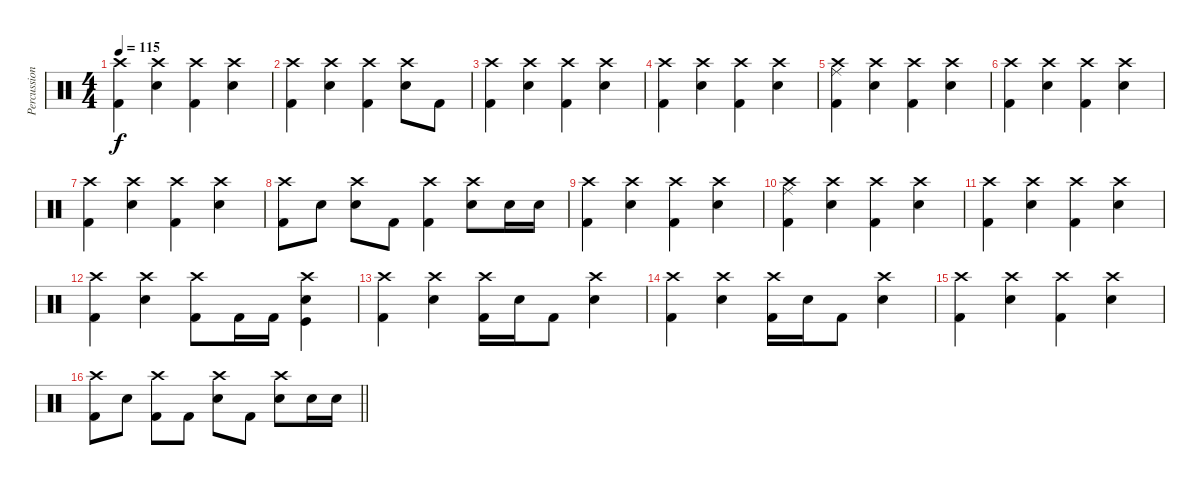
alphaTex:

\track ("Percussion" "Percussion") {instrument percussion}
\staff {score}
\articulation defaults
\ts (4 4)
\tempo 115
\clef neutral
\ks c
("Crash high (hit)" "Kick (hit) 2").4{dy f} ("Crash high (hit)" "Snare (hit) 2").4 ("Crash high (hit)" "Kick (hit) 2").4 ("Crash high (hit)" "Snare (hit) 2").4 |
("Crash high (hit)" "Kick (hit) 2").4 ("Crash high (hit)" "Snare (hit) 2").4 ("Crash high (hit)" "Kick (hit) 2").4 ("Crash high (hit)" "Snare (hit) 2").8 "Kick (hit) 2".8 |
("Crash high (hit)" "Kick (hit) 2").4 ("Crash high (hit)" "Snare (hit) 2").4 ("Crash high (hit)" "Kick (hit) 2").4 ("Crash high (hit)" "Snare (hit) 2").4 |
("Crash high (hit)" "Kick (hit) 2").4 ("Crash high (hit)" "Snare (hit) 2").4 ("Crash high (hit)" "Kick (hit) 2").4 ("Crash high (hit)" "Snare (hit) 2").4 |
("Crash high (hit)" "Ride (middle)" "Kick (hit) 2").4 ("Crash high (hit)" "Snare (hit) 2").4 ("Crash high (hit)" "Kick (hit) 2").4 ("Crash high (hit)" "Snare (hit) 2").4 |
("Crash high (hit)" "Kick (hit) 2").4 ("Crash high (hit)" "Snare (hit) 2").4 ("Crash high (hit)" "Kick (hit) 2").4 ("Crash high (hit)" "Snare (hit) 2").4 |
("Crash high (hit)" "Kick (hit) 2").4 ("Crash high (hit)" "Snare (hit) 2").4 ("Crash high (hit)" "Kick (hit) 2").4 ("Crash high (hit)" "Snare (hit) 2").4 |
("Crash high (hit)" "Kick (hit) 2").8 "Snare (hit) 2".8 ("Crash high (hit)" "Snare (hit) 2").8 "Kick (hit) 2".8 ("Crash high (hit)" "Kick (hit) 2").4 ("Crash high (hit)" "Snare (hit) 2").8 "Snare (hit) 2".16 "Snare (hit) 2".16 |
("Crash high (hit)" "Kick (hit) 2").4 ("Crash high (hit)" "Snare (hit) 2").4 ("Crash high (hit)" "Kick (hit) 2").4 ("Crash high (hit)" "Snare (hit) 2").4 |
("Crash high (hit)" "Ride (middle)" "Kick (hit) 2").4 ("Crash high (hit)" "Snare (hit) 2").4 ("Crash high (hit)" "Kick (hit) 2").4 ("Crash high (hit)" "Snare (hit) 2").4 |
("Crash high (hit)" "Kick (hit) 2").4 ("Crash high (hit)" "Snare (hit) 2").4 ("Crash high (hit)" "Kick (hit) 2").4 ("Crash high (hit)" "Snare (hit) 2").4 |
("Crash high (hit)" "Kick (hit) 2").4 ("Crash high (hit)" "Snare (hit) 2").4 ("Crash high (hit)" "Kick (hit) 2").8 "Kick (hit) 2".16 "Kick (hit) 2".16 ("Crash high (hit)" "Kick (hit)" "Snare (hit) 2").4 |
("Crash high (hit)" "Kick (hit) 2").4 ("Crash high (hit)" "Snare (hit) 2").4 ("Crash high (hit)" "Kick (hit) 2").16 "Snare (hit) 2".16 "Kick (hit) 2".8 ("Crash high (hit)" "Snare (hit) 2").4 |
("Crash high (hit)" "Kick (hit) 2").4 ("Crash high (hit)" "Snare (hit) 2").4 ("Crash high (hit)" "Kick (hit) 2").16 "Snare (hit) 2".16 "Kick (hit) 2".8 ("Crash high (hit)" "Snare (hit) 2").4 |
("Crash high (hit)" "Kick (hit) 2").4 ("Crash high (hit)" "Snare (hit) 2").4 ("Crash high (hit)" "Kick (hit) 2").4 ("Crash high (hit)" "Snare (hit) 2").4 |
\barLineRight lightlight
("Crash high (hit)" "Kick (hit) 2").8 "Snare (hit) 2".8 ("Crash high (hit)" "Kick (hit) 2").8 "Kick (hit) 2".8 ("Crash high (hit)" "Snare (hit) 2").8 "Kick (hit) 2".8 ("Crash high (hit)" "Snare (hit) 2").8 "Snare (hit) 2".16 "Snare (hit) 2".16
